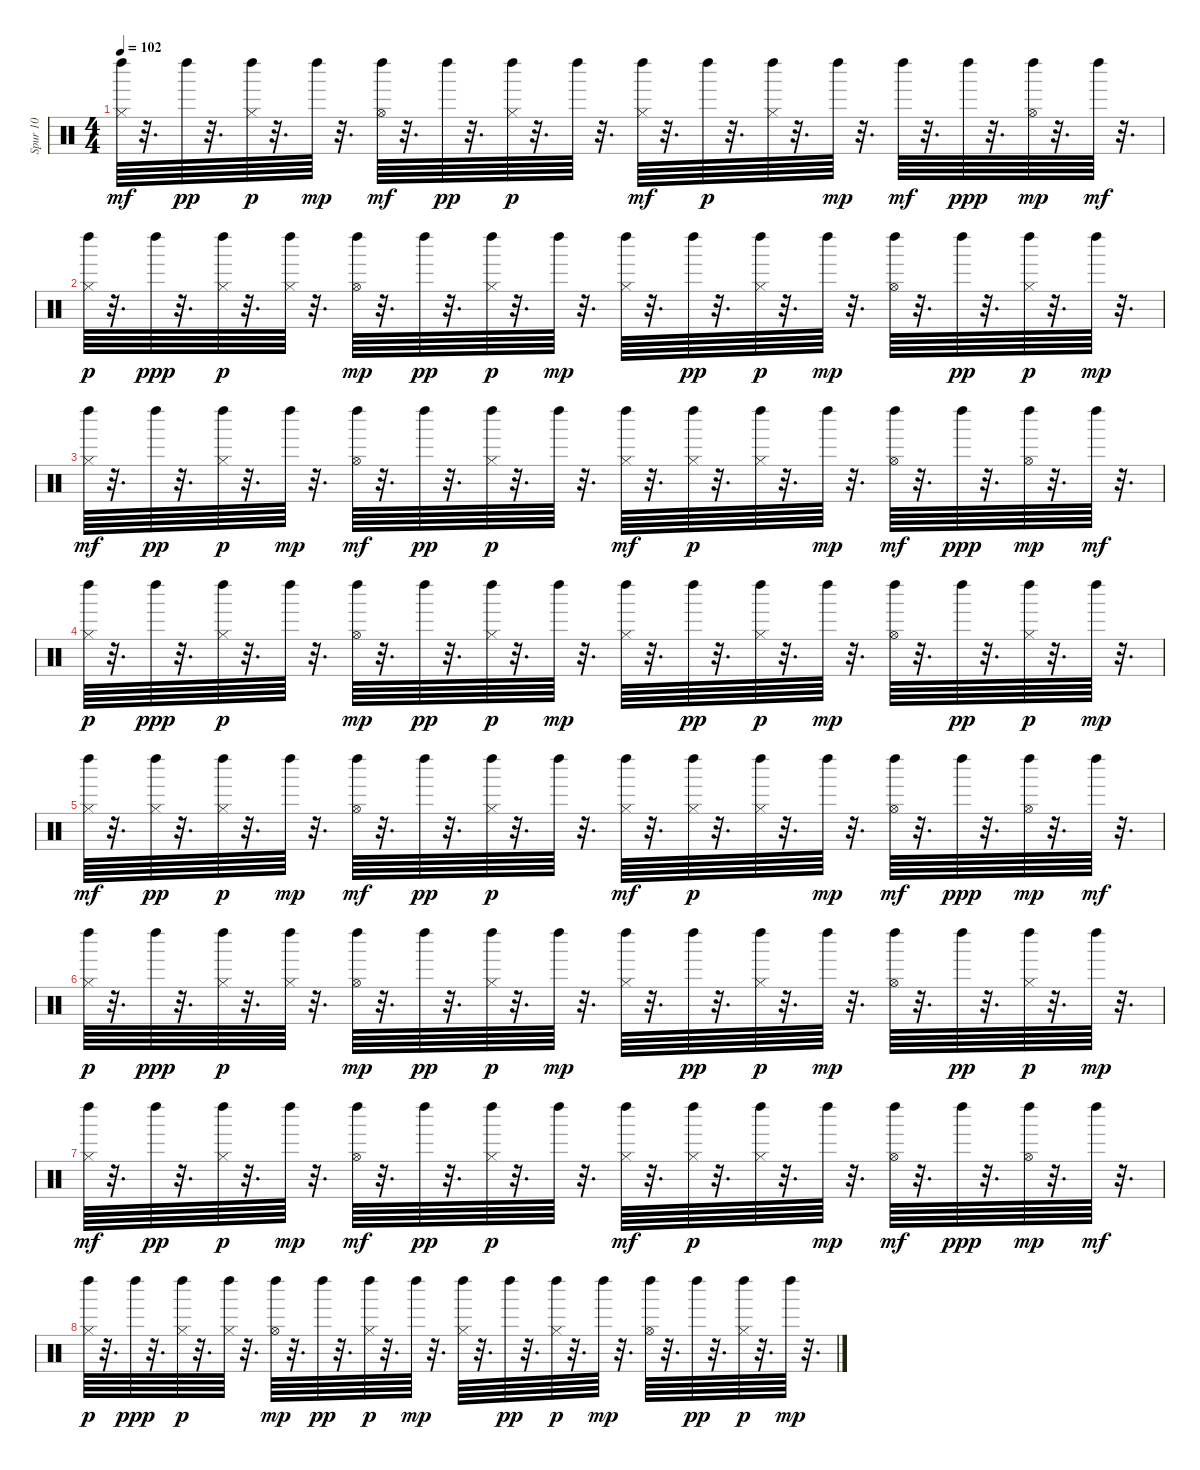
\track ("Spur 10" "Spur 10") {instrument percussion}
\staff {score}
\articulation defaults
\ts (4 4)
\tempo 102
\clef neutral
\ks c
("Hi-Hat (closed)" "Left Maraca (hit)").64{dy mf} r.32{d} "Left Maraca (hit)".64{dy pp} r.32{d} ("Hi-Hat (closed)" "Left Maraca (hit)").64{dy p} r.32{d} "Left Maraca (hit)".64{dy mp} r.32{d} ("Hi-Hat (open)" "Left Maraca (hit)").64{dy mf} r.32{d} "Left Maraca (hit)".64{dy pp} r.32{d} ("Hi-Hat (closed)" "Left Maraca (hit)").64{dy p} r.32{d} "Left Maraca (hit)".64 r.32{d} ("Hi-Hat (closed)" "Left Maraca (hit)").64{dy mf} r.32{d} "Left Maraca (hit)".64{dy p} r.32{d} ("Hi-Hat (closed)" "Left Maraca (hit)").64 r.32{d} "Left Maraca (hit)".64{dy mp} r.32{d} "Left Maraca (hit)".64{dy mf} r.32{d} "Left Maraca (hit)".64{dy ppp} r.32{d} ("Hi-Hat (open)" "Left Maraca (hit)").64{dy mp} r.32{d} "Left Maraca (hit)".64{dy mf} r.32{d} |
("Hi-Hat (closed)" "Left Maraca (hit)").64{dy p} r.32{d} "Left Maraca (hit)".64{dy ppp} r.32{d} ("Hi-Hat (closed)" "Left Maraca (hit)").64{dy p} r.32{d} ("Hi-Hat (closed)" "Left Maraca (hit)").64 r.32{d} ("Hi-Hat (open)" "Left Maraca (hit)").64{dy mp} r.32{d} "Left Maraca (hit)".64{dy pp} r.32{d} ("Hi-Hat (closed)" "Left Maraca (hit)").64{dy p} r.32{d} "Left Maraca (hit)".64{dy mp} r.32{d} ("Hi-Hat (closed)" "Left Maraca (hit)").64 r.32{d} "Left Maraca (hit)".64{dy pp} r.32{d} ("Hi-Hat (closed)" "Left Maraca (hit)").64{dy p} r.32{d} "Left Maraca (hit)".64{dy mp} r.32{d} ("Hi-Hat (open)" "Left Maraca (hit)").64 r.32{d} "Left Maraca (hit)".64{dy pp} r.32{d} ("Hi-Hat (closed)" "Left Maraca (hit)").64{dy p} r.32{d} "Left Maraca (hit)".64{dy mp} r.32{d} |
("Hi-Hat (closed)" "Left Maraca (hit)").64{dy mf} r.32{d} "Left Maraca (hit)".64{dy pp} r.32{d} ("Hi-Hat (closed)" "Left Maraca (hit)").64{dy p} r.32{d} "Left Maraca (hit)".64{dy mp} r.32{d} ("Hi-Hat (open)" "Left Maraca (hit)").64{dy mf} r.32{d} "Left Maraca (hit)".64{dy pp} r.32{d} ("Hi-Hat (closed)" "Left Maraca (hit)").64{dy p} r.32{d} "Left Maraca (hit)".64 r.32{d} ("Hi-Hat (closed)" "Left Maraca (hit)").64{dy mf} r.32{d} ("Hi-Hat (closed)" "Left Maraca (hit)").64{dy p} r.32{d} ("Hi-Hat (closed)" "Left Maraca (hit)").64 r.32{d} "Left Maraca (hit)".64{dy mp} r.32{d} ("Hi-Hat (open)" "Left Maraca (hit)").64{dy mf} r.32{d} "Left Maraca (hit)".64{dy ppp} r.32{d} ("Hi-Hat (open)" "Left Maraca (hit)").64{dy mp} r.32{d} "Left Maraca (hit)".64{dy mf} r.32{d} |
("Hi-Hat (closed)" "Left Maraca (hit)").64{dy p} r.32{d} "Left Maraca (hit)".64{dy ppp} r.32{d} ("Hi-Hat (closed)" "Left Maraca (hit)").64{dy p} r.32{d} "Left Maraca (hit)".64 r.32{d} ("Hi-Hat (open)" "Left Maraca (hit)").64{dy mp} r.32{d} "Left Maraca (hit)".64{dy pp} r.32{d} ("Hi-Hat (closed)" "Left Maraca (hit)").64{dy p} r.32{d} "Left Maraca (hit)".64{dy mp} r.32{d} ("Hi-Hat (closed)" "Left Maraca (hit)").64 r.32{d} "Left Maraca (hit)".64{dy pp} r.32{d} ("Hi-Hat (closed)" "Left Maraca (hit)").64{dy p} r.32{d} "Left Maraca (hit)".64{dy mp} r.32{d} ("Hi-Hat (open)" "Left Maraca (hit)").64 r.32{d} "Left Maraca (hit)".64{dy pp} r.32{d} ("Hi-Hat (closed)" "Left Maraca (hit)").64{dy p} r.32{d} "Left Maraca (hit)".64{dy mp} r.32{d} |
("Hi-Hat (closed)" "Left Maraca (hit)").64{dy mf} r.32{d} ("Hi-Hat (closed)" "Left Maraca (hit)").64{dy pp} r.32{d} ("Hi-Hat (closed)" "Left Maraca (hit)").64{dy p} r.32{d} "Left Maraca (hit)".64{dy mp} r.32{d} ("Hi-Hat (open)" "Left Maraca (hit)").64{dy mf} r.32{d} "Left Maraca (hit)".64{dy pp} r.32{d} ("Hi-Hat (closed)" "Left Maraca (hit)").64{dy p} r.32{d} "Left Maraca (hit)".64 r.32{d} ("Hi-Hat (closed)" "Left Maraca (hit)").64{dy mf} r.32{d} ("Hi-Hat (closed)" "Left Maraca (hit)").64{dy p} r.32{d} ("Hi-Hat (closed)" "Left Maraca (hit)").64 r.32{d} "Left Maraca (hit)".64{dy mp} r.32{d} ("Hi-Hat (open)" "Left Maraca (hit)").64{dy mf} r.32{d} "Left Maraca (hit)".64{dy ppp} r.32{d} ("Hi-Hat (open)" "Left Maraca (hit)").64{dy mp} r.32{d} "Left Maraca (hit)".64{dy mf} r.32{d} |
("Hi-Hat (closed)" "Left Maraca (hit)").64{dy p} r.32{d} "Left Maraca (hit)".64{dy ppp} r.32{d} ("Hi-Hat (closed)" "Left Maraca (hit)").64{dy p} r.32{d} ("Hi-Hat (closed)" "Left Maraca (hit)").64 r.32{d} ("Hi-Hat (open)" "Left Maraca (hit)").64{dy mp} r.32{d} "Left Maraca (hit)".64{dy pp} r.32{d} ("Hi-Hat (closed)" "Left Maraca (hit)").64{dy p} r.32{d} "Left Maraca (hit)".64{dy mp} r.32{d} ("Hi-Hat (closed)" "Left Maraca (hit)").64 r.32{d} "Left Maraca (hit)".64{dy pp} r.32{d} ("Hi-Hat (closed)" "Left Maraca (hit)").64{dy p} r.32{d} "Left Maraca (hit)".64{dy mp} r.32{d} ("Hi-Hat (open)" "Left Maraca (hit)").64 r.32{d} "Left Maraca (hit)".64{dy pp} r.32{d} ("Hi-Hat (closed)" "Left Maraca (hit)").64{dy p} r.32{d} "Left Maraca (hit)".64{dy mp} r.32{d} |
("Hi-Hat (closed)" "Left Maraca (hit)").64{dy mf} r.32{d} "Left Maraca (hit)".64{dy pp} r.32{d} ("Hi-Hat (closed)" "Left Maraca (hit)").64{dy p} r.32{d} "Left Maraca (hit)".64{dy mp} r.32{d} ("Hi-Hat (open)" "Left Maraca (hit)").64{dy mf} r.32{d} "Left Maraca (hit)".64{dy pp} r.32{d} ("Hi-Hat (closed)" "Left Maraca (hit)").64{dy p} r.32{d} "Left Maraca (hit)".64 r.32{d} ("Hi-Hat (closed)" "Left Maraca (hit)").64{dy mf} r.32{d} ("Hi-Hat (closed)" "Left Maraca (hit)").64{dy p} r.32{d} ("Hi-Hat (closed)" "Left Maraca (hit)").64 r.32{d} "Left Maraca (hit)".64{dy mp} r.32{d} ("Hi-Hat (open)" "Left Maraca (hit)").64{dy mf} r.32{d} "Left Maraca (hit)".64{dy ppp} r.32{d} ("Hi-Hat (open)" "Left Maraca (hit)").64{dy mp} r.32{d} "Left Maraca (hit)".64{dy mf} r.32{d} |
("Hi-Hat (closed)" "Left Maraca (hit)").64{dy p} r.32{d} "Left Maraca (hit)".64{dy ppp} r.32{d} ("Hi-Hat (closed)" "Left Maraca (hit)").64{dy p} r.32{d} ("Hi-Hat (closed)" "Left Maraca (hit)").64 r.32{d} ("Hi-Hat (open)" "Left Maraca (hit)").64{dy mp} r.32{d} "Left Maraca (hit)".64{dy pp} r.32{d} ("Hi-Hat (closed)" "Left Maraca (hit)").64{dy p} r.32{d} "Left Maraca (hit)".64{dy mp} r.32{d} ("Hi-Hat (closed)" "Left Maraca (hit)").64 r.32{d} "Left Maraca (hit)".64{dy pp} r.32{d} ("Hi-Hat (closed)" "Left Maraca (hit)").64{dy p} r.32{d} "Left Maraca (hit)".64{dy mp} r.32{d} ("Hi-Hat (open)" "Left Maraca (hit)").64 r.32{d} "Left Maraca (hit)".64{dy pp} r.32{d} ("Hi-Hat (closed)" "Left Maraca (hit)").64{dy p} r.32{d} "Left Maraca (hit)".64{dy mp} r.32{d}
